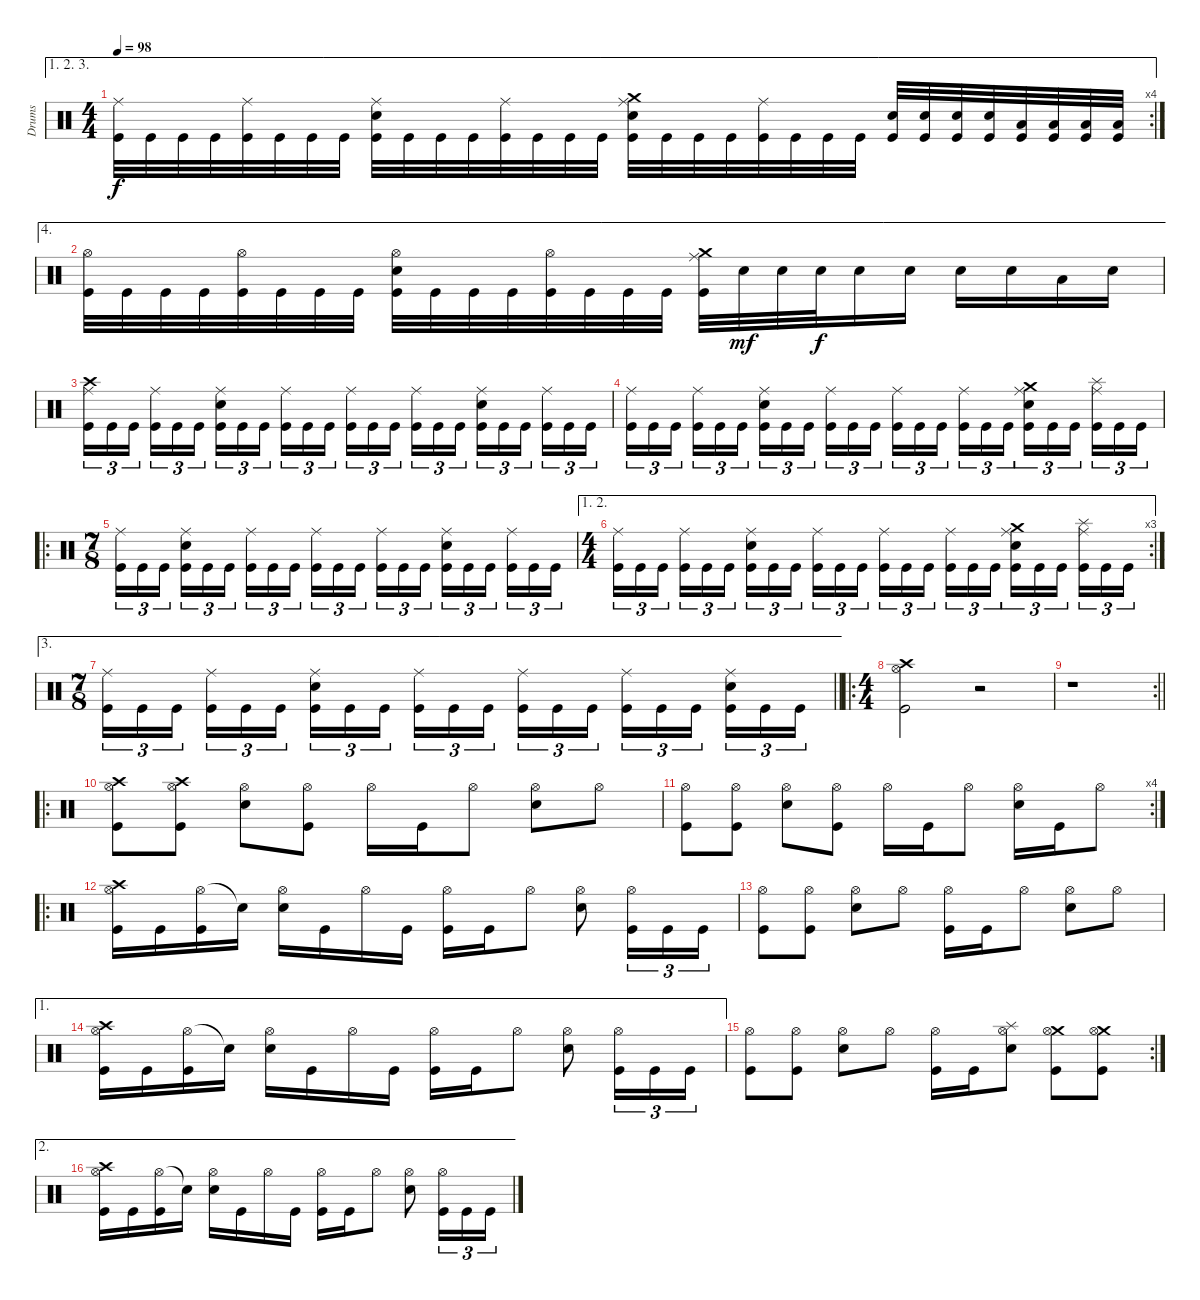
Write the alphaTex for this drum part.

\track ("Drums" "Drums") {instrument percussion}
\staff {score}
\articulation defaults
\ae (1 2 3)
\rc 4
\ts (4 4)
\tempo 98
\clef neutral
\ks aminor
("Ride (middle)" "Kick (hit)").32{dy f} "Kick (hit)".32 "Kick (hit)".32 "Kick (hit)".32 ("Ride (middle)" "Kick (hit)").32 "Kick (hit)".32 "Kick (hit)".32 "Kick (hit)".32 ("Ride (middle)" "Electric Snare (hit)" "Kick (hit)").32 "Kick (hit)".32 "Kick (hit)".32 "Kick (hit)".32 ("Ride (middle)" "Kick (hit)").32 "Kick (hit)".32 "Kick (hit)".32 "Kick (hit)".32 ("Crash medium (hit)" "Ride (middle)" "Electric Snare (hit)" "Kick (hit)").32 "Kick (hit)".32 "Kick (hit)".32 "Kick (hit)".32 ("Ride (middle)" "Kick (hit)").32 "Kick (hit)".32 "Kick (hit)".32 "Kick (hit)".32 ("Electric Snare (hit)" "Kick (hit)").32 ("Electric Snare (hit)" "Kick (hit)").32 ("Electric Snare (hit)" "Kick (hit)").32 ("Electric Snare (hit)" "Kick (hit)").32 ("Low Tom (hit)" "Kick (hit)").32 ("Low Tom (hit)" "Kick (hit)").32 ("Low Tom (hit)" "Kick (hit)").32 ("Low Tom (hit)" "Kick (hit)").32 |
\ae 4
("Hi-Hat (open)" "Kick (hit)").32 "Kick (hit)".32 "Kick (hit)".32 "Kick (hit)".32 ("Hi-Hat (open)" "Kick (hit)").32 "Kick (hit)".32 "Kick (hit)".32 "Kick (hit)".32 ("Hi-Hat (open)" "Electric Snare (hit)" "Kick (hit)").32 "Kick (hit)".32 "Kick (hit)".32 "Kick (hit)".32 ("Hi-Hat (open)" "Kick (hit)").32 "Kick (hit)".32 "Kick (hit)".32 "Kick (hit)".32 ("Crash medium (hit)" "Ride (middle)" "Kick (hit)").32 "Electric Snare (hit)".32{dy mf} "Electric Snare (hit)".32 "Electric Snare (hit)".32{dy f} "Electric Snare (hit)".16 "Electric Snare (hit)".16 "Electric Snare (hit)".16 "Electric Snare (hit)".16 "Low Tom (hit)".16 "Electric Snare (hit)".16 |
("Crash high (hit)" "Ride (middle)" "Kick (hit)").16{tu (3 2)} "Kick (hit)".16{tu (3 2)} "Kick (hit)".16{tu (3 2) beam splitsecondary} ("Ride (middle)" "Kick (hit)").16{tu (3 2)} "Kick (hit)".16{tu (3 2)} "Kick (hit)".16{tu (3 2)} ("Ride (middle)" "Electric Snare (hit)" "Kick (hit)").16{tu (3 2)} "Kick (hit)".16{tu (3 2)} "Kick (hit)".16{tu (3 2) beam splitsecondary} ("Ride (middle)" "Kick (hit)").16{tu (3 2)} "Kick (hit)".16{tu (3 2)} "Kick (hit)".16{tu (3 2)} ("Ride (middle)" "Kick (hit)").16{tu (3 2)} "Kick (hit)".16{tu (3 2)} "Kick (hit)".16{tu (3 2) beam splitsecondary} ("Ride (middle)" "Kick (hit)").16{tu (3 2)} "Kick (hit)".16{tu (3 2)} "Kick (hit)".16{tu (3 2)} ("Ride (middle)" "Electric Snare (hit)" "Kick (hit)").16{tu (3 2)} "Kick (hit)".16{tu (3 2)} "Kick (hit)".16{tu (3 2) beam splitsecondary} ("Ride (middle)" "Kick (hit)").16{tu (3 2)} "Kick (hit)".16{tu (3 2)} "Kick (hit)".16{tu (3 2)} |
("Ride (middle)" "Kick (hit)").16{tu (3 2)} "Kick (hit)".16{tu (3 2)} "Kick (hit)".16{tu (3 2) beam splitsecondary} ("Ride (middle)" "Kick (hit)").16{tu (3 2)} "Kick (hit)".16{tu (3 2)} "Kick (hit)".16{tu (3 2)} ("Ride (middle)" "Electric Snare (hit)" "Kick (hit)").16{tu (3 2)} "Kick (hit)".16{tu (3 2)} "Kick (hit)".16{tu (3 2) beam splitsecondary} ("Ride (middle)" "Kick (hit)").16{tu (3 2)} "Kick (hit)".16{tu (3 2)} "Kick (hit)".16{tu (3 2)} ("Ride (middle)" "Kick (hit)").16{tu (3 2)} "Kick (hit)".16{tu (3 2)} "Kick (hit)".16{tu (3 2) beam splitsecondary} ("Ride (middle)" "Kick (hit)").16{tu (3 2)} "Kick (hit)".16{tu (3 2)} "Kick (hit)".16{tu (3 2)} ("Crash medium (hit)" "Ride (middle)" "Electric Snare (hit)" "Kick (hit)").16{tu (3 2)} "Kick (hit)".16{tu (3 2)} "Kick (hit)".16{tu (3 2) beam splitsecondary} ("Splash (hit)" "Ride (middle)" "Kick (hit)").16{tu (3 2)} "Kick (hit)".16{tu (3 2)} "Kick (hit)".16{tu (3 2)} |
\ro
\ts (7 8)
("Ride (middle)" "Kick (hit)").16{tu (3 2)} "Kick (hit)".16{tu (3 2)} "Kick (hit)".16{tu (3 2)} ("Ride (middle)" "Electric Snare (hit)" "Kick (hit)").16{tu (3 2)} "Kick (hit)".16{tu (3 2)} "Kick (hit)".16{tu (3 2)} ("Ride (middle)" "Kick (hit)").16{tu (3 2)} "Kick (hit)".16{tu (3 2)} "Kick (hit)".16{tu (3 2)} ("Ride (middle)" "Kick (hit)").16{tu (3 2)} "Kick (hit)".16{tu (3 2)} "Kick (hit)".16{tu (3 2)} ("Ride (middle)" "Kick (hit)").16{tu (3 2)} "Kick (hit)".16{tu (3 2)} "Kick (hit)".16{tu (3 2)} ("Ride (middle)" "Electric Snare (hit)" "Kick (hit)").16{tu (3 2)} "Kick (hit)".16{tu (3 2)} "Kick (hit)".16{tu (3 2)} ("Ride (middle)" "Kick (hit)").16{tu (3 2)} "Kick (hit)".16{tu (3 2)} "Kick (hit)".16{tu (3 2)} |
\ae (1 2)
\rc 3
\ts (4 4)
("Ride (middle)" "Kick (hit)").16{tu (3 2)} "Kick (hit)".16{tu (3 2)} "Kick (hit)".16{tu (3 2) beam splitsecondary} ("Ride (middle)" "Kick (hit)").16{tu (3 2)} "Kick (hit)".16{tu (3 2)} "Kick (hit)".16{tu (3 2)} ("Ride (middle)" "Electric Snare (hit)" "Kick (hit)").16{tu (3 2)} "Kick (hit)".16{tu (3 2)} "Kick (hit)".16{tu (3 2) beam splitsecondary} ("Ride (middle)" "Kick (hit)").16{tu (3 2)} "Kick (hit)".16{tu (3 2)} "Kick (hit)".16{tu (3 2)} ("Ride (middle)" "Kick (hit)").16{tu (3 2)} "Kick (hit)".16{tu (3 2)} "Kick (hit)".16{tu (3 2) beam splitsecondary} ("Ride (middle)" "Kick (hit)").16{tu (3 2)} "Kick (hit)".16{tu (3 2)} "Kick (hit)".16{tu (3 2)} ("Crash medium (hit)" "Ride (middle)" "Electric Snare (hit)" "Kick (hit)").16{tu (3 2)} "Kick (hit)".16{tu (3 2)} "Kick (hit)".16{tu (3 2) beam splitsecondary} ("Splash (hit)" "Ride (middle)" "Kick (hit)").16{tu (3 2)} "Kick (hit)".16{tu (3 2)} "Kick (hit)".16{tu (3 2)} |
\ae 3
\ts (7 8)
\barLineRight lightlight
("Ride (middle)" "Kick (hit)").16{tu (3 2)} "Kick (hit)".16{tu (3 2)} "Kick (hit)".16{tu (3 2)} ("Ride (middle)" "Kick (hit)").16{tu (3 2)} "Kick (hit)".16{tu (3 2)} "Kick (hit)".16{tu (3 2)} ("Ride (middle)" "Electric Snare (hit)" "Kick (hit)").16{tu (3 2)} "Kick (hit)".16{tu (3 2)} "Kick (hit)".16{tu (3 2)} ("Ride (middle)" "Kick (hit)").16{tu (3 2)} "Kick (hit)".16{tu (3 2)} "Kick (hit)".16{tu (3 2)} ("Ride (middle)" "Kick (hit)").16{tu (3 2)} "Kick (hit)".16{tu (3 2)} "Kick (hit)".16{tu (3 2)} ("Ride (middle)" "Kick (hit)").16{tu (3 2)} "Kick (hit)".16{tu (3 2)} "Kick (hit)".16{tu (3 2)} ("Ride (middle)" "Electric Snare (hit)" "Kick (hit)").16{tu (3 2)} "Kick (hit)".16{tu (3 2)} "Kick (hit)".16{tu (3 2)} |
\ro
\ts (4 4)
("Crash high (hit)" "Hi-Hat (open)" "Kick (hit)").2 r.2 |
\rc 2
\barLineRight lightlight
r.1 |
\ro
("Crash high (hit)" "Hi-Hat (open)" "Kick (hit)").8 ("Crash high (hit)" "Hi-Hat (open)" "Kick (hit)").8 ("Hi-Hat (open)" "Electric Snare (hit)").8 ("Hi-Hat (open)" "Kick (hit)").8 "Hi-Hat (open)".16 "Kick (hit)".16 "Hi-Hat (open)".8 ("Hi-Hat (open)" "Electric Snare (hit)").8 "Hi-Hat (open)".8 |
\rc 4
("Hi-Hat (open)" "Kick (hit)").8 ("Hi-Hat (open)" "Kick (hit)").8 ("Hi-Hat (open)" "Electric Snare (hit)").8 ("Hi-Hat (open)" "Kick (hit)").8 "Hi-Hat (open)".16 "Kick (hit)".16 "Hi-Hat (open)".8 ("Hi-Hat (open)" "Electric Snare (hit)").16 "Kick (hit)".16 "Hi-Hat (open)".8 |
\ro
("Crash high (hit)" "Hi-Hat (open)" "Kick (hit)").16 "Kick (hit)".16 ("Hi-Hat (open)" "Kick (hit)").16 "Snare (hit)"{t}.16 ("Hi-Hat (open)" "Electric Snare (hit)").16 "Kick (hit)".16 "Hi-Hat (open)".16 "Kick (hit)".16 ("Hi-Hat (open)" "Kick (hit)").16 "Kick (hit)".16 "Hi-Hat (open)".8 ("Hi-Hat (open)" "Electric Snare (hit)").8 ("Hi-Hat (open)" "Kick (hit)").16{tu (3 2)} "Kick (hit)".16{tu (3 2)} "Kick (hit)".16{tu (3 2)} |
("Hi-Hat (open)" "Kick (hit)").8 ("Hi-Hat (open)" "Kick (hit)").8 ("Hi-Hat (open)" "Electric Snare (hit)").8 "Hi-Hat (open)".8 ("Hi-Hat (open)" "Kick (hit)").16 "Kick (hit)".16 "Hi-Hat (open)".8 ("Hi-Hat (open)" "Electric Snare (hit)").8 "Hi-Hat (open)".8 |
\ae 1
("Crash high (hit)" "Hi-Hat (open)" "Kick (hit)").16 "Kick (hit)".16 ("Hi-Hat (open)" "Kick (hit)").16 "Snare (hit)"{t}.16 ("Hi-Hat (open)" "Electric Snare (hit)").16 "Kick (hit)".16 "Hi-Hat (open)".16 "Kick (hit)".16 ("Hi-Hat (open)" "Kick (hit)").16 "Kick (hit)".16 "Hi-Hat (open)".8 ("Hi-Hat (open)" "Electric Snare (hit)").8 ("Hi-Hat (open)" "Kick (hit)").16{tu (3 2)} "Kick (hit)".16{tu (3 2)} "Kick (hit)".16{tu (3 2)} |
\rc 2
("Hi-Hat (open)" "Kick (hit)").8 ("Hi-Hat (open)" "Kick (hit)").8 ("Hi-Hat (open)" "Electric Snare (hit)").8 "Hi-Hat (open)".8 ("Hi-Hat (open)" "Kick (hit)").16 "Kick (hit)".16 ("Splash (hit)" "Hi-Hat (open)" "Electric Snare (hit)").8 ("Crash medium (hit)" "Hi-Hat (open)" "Kick (hit)").8 ("Crash medium (hit)" "Hi-Hat (open)" "Kick (hit)").8 |
\ae 2
("Crash high (hit)" "Hi-Hat (open)" "Kick (hit)").16 "Kick (hit)".16 ("Hi-Hat (open)" "Kick (hit)").16 "Snare (hit)"{t}.16 ("Hi-Hat (open)" "Electric Snare (hit)").16 "Kick (hit)".16 "Hi-Hat (open)".16 "Kick (hit)".16 ("Hi-Hat (open)" "Kick (hit)").16 "Kick (hit)".16 "Hi-Hat (open)".8 ("Hi-Hat (open)" "Electric Snare (hit)").8 ("Hi-Hat (open)" "Kick (hit)").16{tu (3 2)} "Kick (hit)".16{tu (3 2)} "Kick (hit)".16{tu (3 2)}
